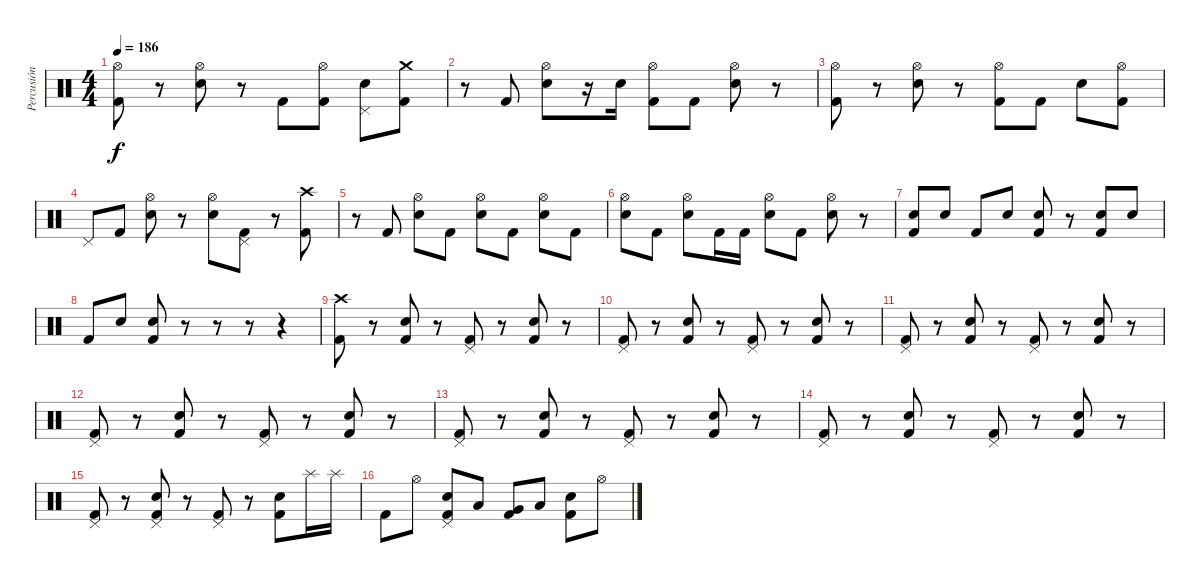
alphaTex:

\track ("Percusión" "Percusión") {instrument percussion}
\staff {score}
\articulation defaults
\ts (4 4)
\tempo 186
\clef neutral
\ks c
("Kick (hit) 2" "Hi-Hat (open)").8{dy f} r.8 ("Snare (hit) 2" "Hi-Hat (open)").8 r.8 "Kick (hit) 2".8 ("Kick (hit) 2" "Hi-Hat (open)").8 ("Snare (hit) 2" "Pedal Hi-Hat (hit)").8 ("Kick (hit) 2" "Crash medium (hit)").8 |
r.8 "Kick (hit) 2".8 ("Snare (hit) 2" "Hi-Hat (open)").8 r.16 "Snare (hit) 2".16 ("Kick (hit) 2" "Hi-Hat (open)").8 "Kick (hit) 2".8 ("Snare (hit) 2" "Hi-Hat (open)").8 r.8 |
("Kick (hit) 2" "Hi-Hat (open)").8 r.8 ("Snare (hit) 2" "Hi-Hat (open)").8 r.8 ("Kick (hit) 2" "Hi-Hat (open)").8 "Kick (hit) 2".8 "Snare (hit) 2".8 ("Kick (hit) 2" "Hi-Hat (open)").8 |
"Pedal Hi-Hat (hit)".8 "Kick (hit) 2".8 ("Snare (hit) 2" "Hi-Hat (open)").8 r.8 ("Snare (hit) 2" "Hi-Hat (open)").8 ("Kick (hit) 2" "Pedal Hi-Hat (hit)").8 r.8 ("Kick (hit) 2" "Crash high (hit)").8 |
r.8 "Kick (hit) 2".8 ("Snare (hit) 2" "Hi-Hat (open)").8 "Kick (hit) 2".8 ("Snare (hit) 2" "Hi-Hat (open)").8 "Kick (hit) 2".8 ("Snare (hit) 2" "Hi-Hat (open)").8 "Kick (hit) 2".8 |
("Snare (hit) 2" "Hi-Hat (open)").8 "Kick (hit) 2".8 ("Snare (hit) 2" "Hi-Hat (open)").8 "Kick (hit) 2".16 "Kick (hit) 2".16 ("Snare (hit) 2" "Hi-Hat (open)").8 "Kick (hit) 2".8 ("Snare (hit) 2" "Hi-Hat (open)").8 r.8 |
("Kick (hit) 2" "Snare (hit) 2").8 "Snare (hit) 2".8 "Kick (hit) 2".8 "Snare (hit) 2".8 ("Kick (hit) 2" "Snare (hit) 2").8 r.8 ("Kick (hit) 2" "Snare (hit) 2").8 "Snare (hit) 2".8 |
"Kick (hit) 2".8 "Snare (hit) 2".8 ("Kick (hit) 2" "Snare (hit) 2").8 r.8 r.8 r.8 r.4 |
("Kick (hit) 2" "Crash high (hit)").8 r.8 ("Kick (hit) 2" "Snare (hit) 2").8 r.8 ("Kick (hit) 2" "Pedal Hi-Hat (hit)").8 r.8 ("Kick (hit) 2" "Snare (hit) 2").8 r.8 |
("Kick (hit) 2" "Pedal Hi-Hat (hit)").8 r.8 ("Kick (hit) 2" "Snare (hit) 2").8 r.8 ("Kick (hit) 2" "Pedal Hi-Hat (hit)").8 r.8 ("Kick (hit) 2" "Snare (hit) 2").8 r.8 |
("Kick (hit) 2" "Pedal Hi-Hat (hit)").8 r.8 ("Kick (hit) 2" "Snare (hit) 2").8 r.8 ("Kick (hit) 2" "Pedal Hi-Hat (hit)").8 r.8 ("Kick (hit) 2" "Snare (hit) 2").8 r.8 |
("Kick (hit) 2" "Pedal Hi-Hat (hit)").8 r.8 ("Kick (hit) 2" "Snare (hit) 2").8 r.8 ("Kick (hit) 2" "Pedal Hi-Hat (hit)").8 r.8 ("Kick (hit) 2" "Snare (hit) 2").8 r.8 |
("Kick (hit) 2" "Pedal Hi-Hat (hit)").8 r.8 ("Kick (hit) 2" "Snare (hit) 2").8 r.8 ("Kick (hit) 2" "Pedal Hi-Hat (hit)").8 r.8 ("Kick (hit) 2" "Snare (hit) 2").8 r.8 |
("Kick (hit) 2" "Pedal Hi-Hat (hit)").8 r.8 ("Kick (hit) 2" "Snare (hit) 2").8 r.8 ("Kick (hit) 2" "Pedal Hi-Hat (hit)").8 r.8 ("Kick (hit) 2" "Snare (hit) 2").8 r.8 |
("Kick (hit) 2" "Pedal Hi-Hat (hit)").8 r.8 ("Kick (hit) 2" "Pedal Hi-Hat (hit)" "Snare (hit) 2").8 r.8 ("Kick (hit) 2" "Pedal Hi-Hat (hit)").8 r.8 ("Kick (hit) 2" "Snare (hit) 2").8 "Splash (hit)".16 "Splash (hit)".16 |
"Kick (hit) 2".8 "Hi-Hat (open)".8 ("Kick (hit) 2" "Snare (hit) 2" "Pedal Hi-Hat (hit)").8 "Low Tom (hit)".8 ("Kick (hit) 2" "Very Low Tom (hit)").8 "Low Floor Tom (hit)".8 ("Kick (hit) 2" "Snare (hit) 2").8 "Hi-Hat (open)".8
